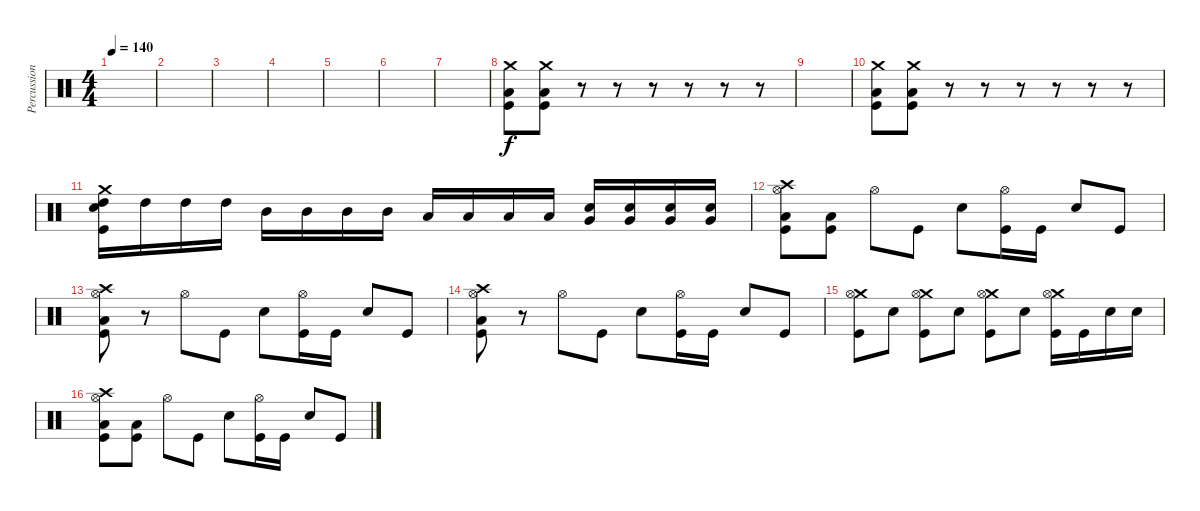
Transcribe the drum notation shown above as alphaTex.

\track ("Percussion" "Percussion") {instrument percussion}
\staff {score}
\articulation defaults
\ts (4 4)
\tempo 140
\clef neutral
\ks c
|
|
|
|
|
|
|
("Crash medium (hit)" "Low Floor Tom (hit)" "Kick (hit)").8 ("Crash medium (hit)" "Low Floor Tom (hit)" "Kick (hit)").8 r.8 r.8 r.8 r.8 r.8 r.8 |
|
("Crash medium (hit)" "Low Floor Tom (hit)" "Kick (hit)").8 ("Crash medium (hit)" "Low Floor Tom (hit)" "Kick (hit)").8 r.8 r.8 r.8 r.8 r.8 r.8 |
("Crash medium (hit)" "Electric Snare (hit)" "High Tom (hit)" "Kick (hit)").16 "High Tom (hit)".16 "High Tom (hit)".16 "High Tom (hit)".16 "Mid Tom (hit)".16 "Mid Tom (hit)".16 "Mid Tom (hit)".16 "Mid Tom (hit)".16 "Low Tom (hit)".16 "Low Tom (hit)".16 "Low Tom (hit)".16 "Low Tom (hit)".16 ("Electric Snare (hit)" "Very Low Tom (hit)").16 ("Electric Snare (hit)" "Very Low Tom (hit)").16 ("Electric Snare (hit)" "Very Low Tom (hit)").16 ("Electric Snare (hit)" "Very Low Tom (hit)").16 |
("Crash high (hit)" "Hi-Hat (open)" "Low Floor Tom (hit)" "Kick (hit)").8 ("Low Floor Tom (hit)" "Kick (hit)").8 "Hi-Hat (open)".8 "Kick (hit)".8 "Electric Snare (hit)".8 ("Hi-Hat (open)" "Kick (hit)").16 "Kick (hit)".16 "Electric Snare (hit)".8 "Kick (hit)".8 |
("Crash high (hit)" "Hi-Hat (open)" "Low Floor Tom (hit)" "Kick (hit)").8 r.8 "Hi-Hat (open)".8 "Kick (hit)".8 "Electric Snare (hit)".8 ("Hi-Hat (open)" "Kick (hit)").16 "Kick (hit)".16 "Electric Snare (hit)".8 "Kick (hit)".8 |
("Crash high (hit)" "Hi-Hat (open)" "Low Floor Tom (hit)" "Kick (hit)").8 r.8 "Hi-Hat (open)".8 "Kick (hit)".8 "Electric Snare (hit)".8 ("Hi-Hat (open)" "Kick (hit)").16 "Kick (hit)".16 "Electric Snare (hit)".8 "Kick (hit)".8 |
("Crash medium (hit)" "Hi-Hat (open)" "Kick (hit)").8 "Electric Snare (hit)".8 ("Crash medium (hit)" "Hi-Hat (open)" "Kick (hit)").8 "Electric Snare (hit)".8 ("Crash medium (hit)" "Hi-Hat (open)" "Kick (hit)").8 "Electric Snare (hit)".8 ("Crash medium (hit)" "Hi-Hat (open)" "Kick (hit)").16 "Kick (hit)".16 "Electric Snare (hit)".16 "Electric Snare (hit)".16 |
("Crash high (hit)" "Hi-Hat (open)" "Low Floor Tom (hit)" "Kick (hit)").8 ("Low Floor Tom (hit)" "Kick (hit)").8 "Hi-Hat (open)".8 "Kick (hit)".8 "Electric Snare (hit)".8 ("Hi-Hat (open)" "Kick (hit)").16 "Kick (hit)".16 "Electric Snare (hit)".8 "Kick (hit)".8
